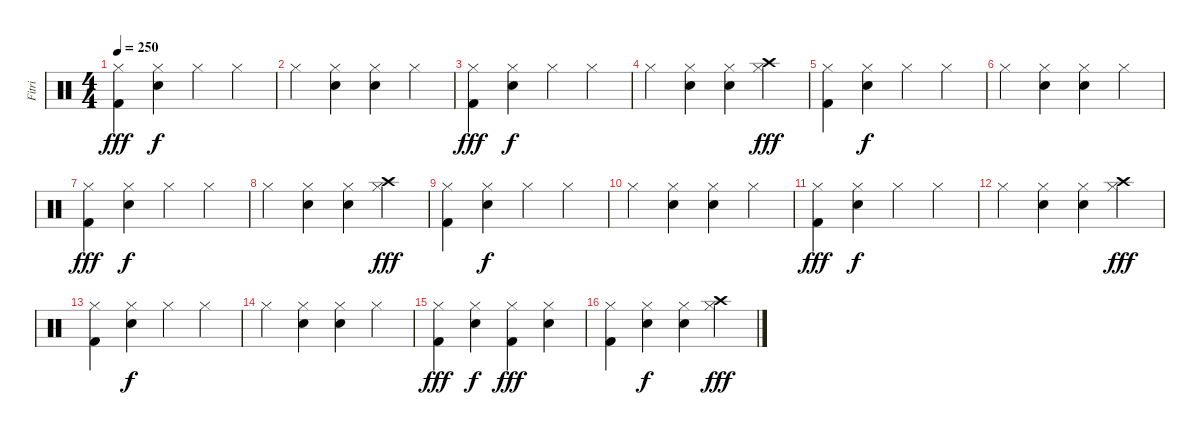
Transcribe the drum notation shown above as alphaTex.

\track ("Fitri" "Fitri") {instrument percussion}
\staff {score}
\articulation defaults
\ts (4 4)
\tempo 250
\clef neutral
\ks c
("Hi-Hat (closed)" "Kick (hit) 2").4{dy fff} ("Hi-Hat (closed)" "Snare (hit) 2").4{dy f} "Hi-Hat (closed)".4 "Hi-Hat (closed)".4 |
"Hi-Hat (closed)".4 ("Hi-Hat (closed)" "Snare (hit) 2").4 ("Hi-Hat (closed)" "Snare (hit) 2").4 "Hi-Hat (closed)".4 |
("Hi-Hat (closed)" "Kick (hit) 2").4{dy fff} ("Hi-Hat (closed)" "Snare (hit) 2").4{dy f} "Hi-Hat (closed)".4 "Hi-Hat (closed)".4 |
"Hi-Hat (closed)".4 ("Hi-Hat (closed)" "Snare (hit) 2").4 ("Hi-Hat (closed)" "Snare (hit) 2").4 ("Hi-Hat (closed)" "Crash high (hit)").4{dy fff} |
("Hi-Hat (closed)" "Kick (hit) 2").4 ("Hi-Hat (closed)" "Snare (hit) 2").4{dy f} "Hi-Hat (closed)".4 "Hi-Hat (closed)".4 |
"Hi-Hat (closed)".4 ("Hi-Hat (closed)" "Snare (hit) 2").4 ("Hi-Hat (closed)" "Snare (hit) 2").4 "Hi-Hat (closed)".4 |
("Hi-Hat (closed)" "Kick (hit) 2").4{dy fff} ("Hi-Hat (closed)" "Snare (hit) 2").4{dy f} "Hi-Hat (closed)".4 "Hi-Hat (closed)".4 |
"Hi-Hat (closed)".4 ("Hi-Hat (closed)" "Snare (hit) 2").4 ("Hi-Hat (closed)" "Snare (hit) 2").4 ("Hi-Hat (closed)" "Crash high (hit)").4{dy fff} |
("Hi-Hat (closed)" "Kick (hit) 2").4 ("Hi-Hat (closed)" "Snare (hit) 2").4{dy f} "Hi-Hat (closed)".4 "Hi-Hat (closed)".4 |
"Hi-Hat (closed)".4 ("Hi-Hat (closed)" "Snare (hit) 2").4 ("Hi-Hat (closed)" "Snare (hit) 2").4 "Hi-Hat (closed)".4 |
("Hi-Hat (closed)" "Kick (hit) 2").4{dy fff} ("Hi-Hat (closed)" "Snare (hit) 2").4{dy f} "Hi-Hat (closed)".4 "Hi-Hat (closed)".4 |
"Hi-Hat (closed)".4 ("Hi-Hat (closed)" "Snare (hit) 2").4 ("Hi-Hat (closed)" "Snare (hit) 2").4 ("Hi-Hat (closed)" "Crash high (hit)").4{dy fff} |
("Hi-Hat (closed)" "Kick (hit) 2").4 ("Hi-Hat (closed)" "Snare (hit) 2").4{dy f} "Hi-Hat (closed)".4 "Hi-Hat (closed)".4 |
"Hi-Hat (closed)".4 ("Hi-Hat (closed)" "Snare (hit) 2").4 ("Hi-Hat (closed)" "Snare (hit) 2").4 "Hi-Hat (closed)".4 |
("Hi-Hat (closed)" "Kick (hit) 2").4{dy fff} ("Hi-Hat (closed)" "Snare (hit) 2").4{dy f} ("Hi-Hat (closed)" "Kick (hit) 2").4{dy fff} ("Hi-Hat (closed)" "Snare (hit) 2").4 |
("Hi-Hat (closed)" "Kick (hit) 2").4 ("Hi-Hat (closed)" "Snare (hit) 2").4{dy f} ("Hi-Hat (closed)" "Snare (hit) 2").4 ("Hi-Hat (closed)" "Crash high (hit)").4{dy fff}
